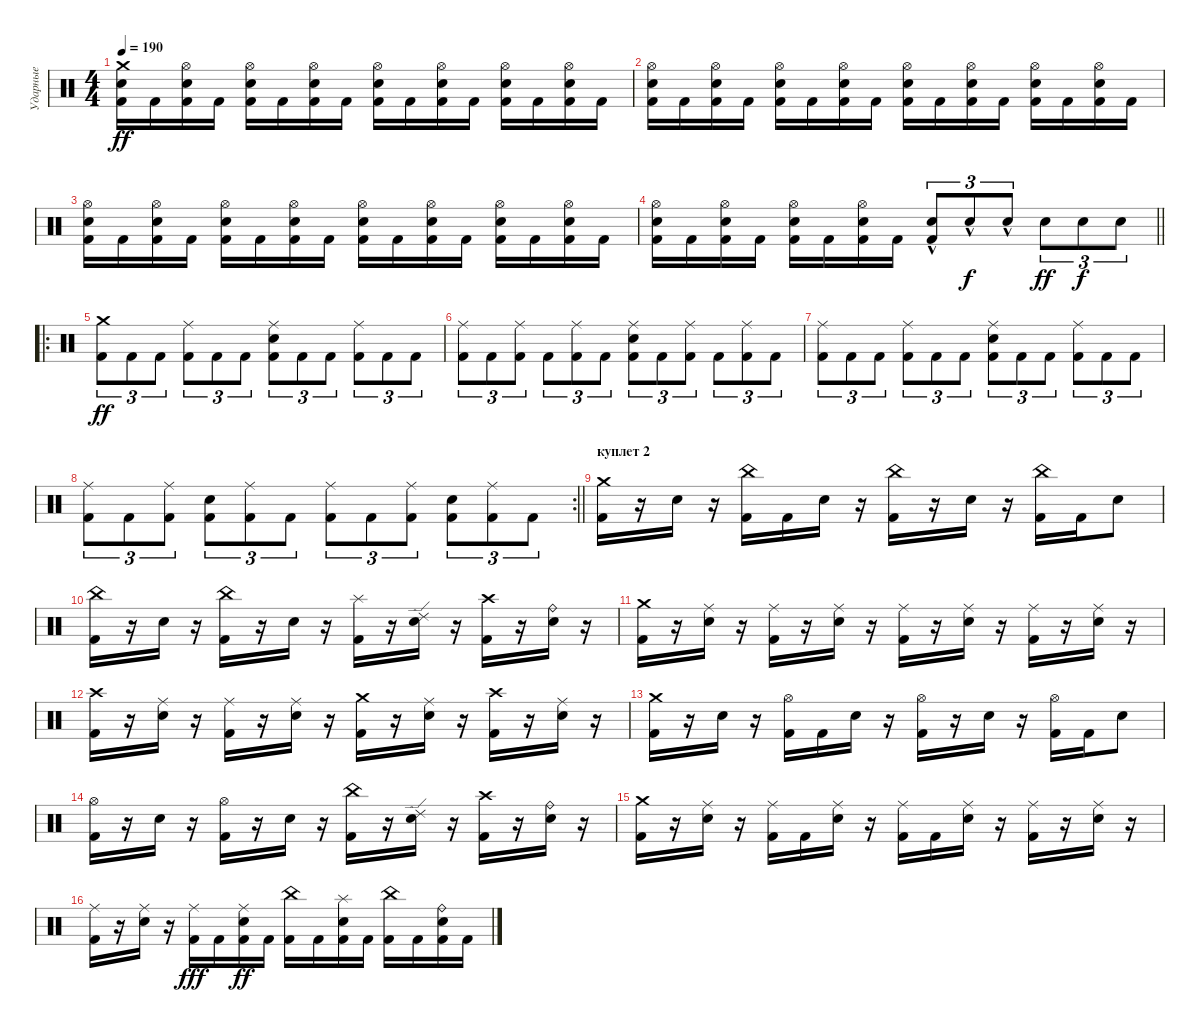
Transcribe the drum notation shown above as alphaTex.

\track ("Ударные" "Ударные") {instrument percussion}
\staff {score}
\articulation defaults
\ts (4 4)
\tempo 190
\clef neutral
\ks c
("Crash medium (hit)" "Electric Snare (hit)" "Kick (hit) 2").16{dy ff} "Kick (hit) 2".16 ("Hi-Hat (open)" "Electric Snare (hit)" "Kick (hit) 2").16 "Kick (hit) 2".16 ("Hi-Hat (open)" "Electric Snare (hit)" "Kick (hit) 2").16 "Kick (hit) 2".16 ("Hi-Hat (open)" "Electric Snare (hit)" "Kick (hit) 2").16 "Kick (hit) 2".16 ("Hi-Hat (open)" "Electric Snare (hit)" "Kick (hit) 2").16 "Kick (hit) 2".16 ("Hi-Hat (open)" "Electric Snare (hit)" "Kick (hit) 2").16 "Kick (hit) 2".16 ("Hi-Hat (open)" "Electric Snare (hit)" "Kick (hit) 2").16 "Kick (hit) 2".16 ("Hi-Hat (open)" "Electric Snare (hit)" "Kick (hit) 2").16 "Kick (hit) 2".16 |
("Hi-Hat (open)" "Electric Snare (hit)" "Kick (hit) 2").16 "Kick (hit) 2".16 ("Hi-Hat (open)" "Electric Snare (hit)" "Kick (hit) 2").16 "Kick (hit) 2".16 ("Hi-Hat (open)" "Electric Snare (hit)" "Kick (hit) 2").16 "Kick (hit) 2".16 ("Hi-Hat (open)" "Electric Snare (hit)" "Kick (hit) 2").16 "Kick (hit) 2".16 ("Hi-Hat (open)" "Electric Snare (hit)" "Kick (hit) 2").16 "Kick (hit) 2".16 ("Hi-Hat (open)" "Electric Snare (hit)" "Kick (hit) 2").16 "Kick (hit) 2".16 ("Hi-Hat (open)" "Electric Snare (hit)" "Kick (hit) 2").16 "Kick (hit) 2".16 ("Hi-Hat (open)" "Electric Snare (hit)" "Kick (hit) 2").16 "Kick (hit) 2".16 |
("Hi-Hat (open)" "Electric Snare (hit)" "Kick (hit) 2").16 "Kick (hit) 2".16 ("Hi-Hat (open)" "Electric Snare (hit)" "Kick (hit) 2").16 "Kick (hit) 2".16 ("Hi-Hat (open)" "Electric Snare (hit)" "Kick (hit) 2").16 "Kick (hit) 2".16 ("Hi-Hat (open)" "Electric Snare (hit)" "Kick (hit) 2").16 "Kick (hit) 2".16 ("Hi-Hat (open)" "Electric Snare (hit)" "Kick (hit) 2").16 "Kick (hit) 2".16 ("Hi-Hat (open)" "Electric Snare (hit)" "Kick (hit) 2").16 "Kick (hit) 2".16 ("Hi-Hat (open)" "Electric Snare (hit)" "Kick (hit) 2").16 "Kick (hit) 2".16 ("Hi-Hat (open)" "Electric Snare (hit)" "Kick (hit) 2").16 "Kick (hit) 2".16 |
\barLineRight lightlight
("Hi-Hat (open)" "Electric Snare (hit)" "Kick (hit) 2").16 "Kick (hit) 2".16 ("Hi-Hat (open)" "Electric Snare (hit)" "Kick (hit) 2").16 "Kick (hit) 2".16 ("Hi-Hat (open)" "Electric Snare (hit)" "Kick (hit) 2").16 "Kick (hit) 2".16 ("Hi-Hat (open)" "Electric Snare (hit)" "Kick (hit) 2").16 "Kick (hit) 2".16 ("Electric Snare (hit)"{hac} "Kick (hit) 2").8{tu (3 2)} "Electric Snare (hit)"{hac}.8{tu (3 2) dy f} "Electric Snare (hit)"{hac}.8{tu (3 2)} "Electric Snare (hit)".8{tu (3 2) dy ff} "Electric Snare (hit)".8{tu (3 2) dy f} "Electric Snare (hit)".8{tu (3 2)} |
\ro
("Crash medium (hit)" "Kick (hit) 2").8{tu (3 2) dy ff} "Kick (hit) 2".8{tu (3 2)} "Kick (hit) 2".8{tu (3 2)} ("Ride (middle)" "Kick (hit) 2").8{tu (3 2)} "Kick (hit) 2".8{tu (3 2)} "Kick (hit) 2".8{tu (3 2)} ("Ride (middle)" "Electric Snare (hit)" "Kick (hit) 2").8{tu (3 2)} "Kick (hit) 2".8{tu (3 2)} "Kick (hit) 2".8{tu (3 2)} ("Ride (middle)" "Kick (hit) 2").8{tu (3 2)} "Kick (hit) 2".8{tu (3 2)} "Kick (hit) 2".8{tu (3 2)} |
("Ride (middle)" "Kick (hit) 2").8{tu (3 2)} "Kick (hit) 2".8{tu (3 2)} ("Ride (middle)" "Kick (hit) 2").8{tu (3 2)} "Kick (hit) 2".8{tu (3 2)} ("Ride (middle)" "Kick (hit) 2").8{tu (3 2)} "Kick (hit) 2".8{tu (3 2)} ("Ride (middle)" "Electric Snare (hit)" "Kick (hit) 2").8{tu (3 2)} "Kick (hit) 2".8{tu (3 2)} ("Ride (middle)" "Kick (hit) 2").8{tu (3 2)} "Kick (hit) 2".8{tu (3 2)} ("Ride (middle)" "Kick (hit) 2").8{tu (3 2)} "Kick (hit) 2".8{tu (3 2)} |
("Ride (middle)" "Kick (hit) 2").8{tu (3 2)} "Kick (hit) 2".8{tu (3 2)} "Kick (hit) 2".8{tu (3 2)} ("Ride (middle)" "Kick (hit) 2").8{tu (3 2)} "Kick (hit) 2".8{tu (3 2)} "Kick (hit) 2".8{tu (3 2)} ("Ride (middle)" "Electric Snare (hit)" "Kick (hit) 2").8{tu (3 2)} "Kick (hit) 2".8{tu (3 2)} "Kick (hit) 2".8{tu (3 2)} ("Ride (middle)" "Kick (hit) 2").8{tu (3 2)} "Kick (hit) 2".8{tu (3 2)} "Kick (hit) 2".8{tu (3 2)} |
\rc 2
\barLineRight lightlight
("Ride (middle)" "Kick (hit) 2").8{tu (3 2)} "Kick (hit) 2".8{tu (3 2)} ("Ride (middle)" "Kick (hit) 2").8{tu (3 2)} ("Electric Snare (hit)" "Kick (hit) 2").8{tu (3 2)} ("Ride (middle)" "Kick (hit) 2").8{tu (3 2)} "Kick (hit) 2".8{tu (3 2)} ("Ride (middle)" "Kick (hit) 2").8{tu (3 2)} "Kick (hit) 2".8{tu (3 2)} ("Ride (middle)" "Kick (hit) 2").8{tu (3 2)} ("Electric Snare (hit)" "Kick (hit) 2").8{tu (3 2)} ("Ride (middle)" "Kick (hit) 2").8{tu (3 2)} "Kick (hit) 2".8{tu (3 2)} |
\section ("" "куплет 2")
("Crash medium (hit)" "Kick (hit) 2").16 r.16 "Electric Snare (hit)".16 r.16 ("China (hit)" "Kick (hit) 2").16 "Kick (hit) 2".16 "Electric Snare (hit)".16 r.16 ("China (hit)" "Kick (hit) 2").16 r.16 "Electric Snare (hit)".16 r.16 ("China (hit)" "Kick (hit) 2").16 "Kick (hit) 2".16 "Electric Snare (hit)".8 |
("China (hit)" "Kick (hit) 2").16 r.16 "Electric Snare (hit)".16 r.16 ("China (hit)" "Kick (hit) 2").16 r.16 "Electric Snare (hit)".16 r.16 ("Splash (hit)" "Kick (hit) 2").16 r.16 ("Ride (edge) 2" "Electric Snare (hit)").16 r.16 ("Crash high (hit)" "Kick (hit) 2").16 r.16 ("Ride (bell)" "Electric Snare (hit)").16 r.16 |
("Crash medium (hit)" "Kick (hit) 2").16 r.16 ("Ride (middle)" "Electric Snare (hit)").16 r.16 ("Ride (middle)" "Kick (hit) 2").16 r.16 ("Ride (middle)" "Electric Snare (hit)").16 r.16 ("Ride (middle)" "Kick (hit) 2").16 r.16 ("Ride (middle)" "Electric Snare (hit)").16 r.16 ("Ride (middle)" "Kick (hit) 2").16 r.16 ("Ride (middle)" "Electric Snare (hit)").16 r.16 |
("Crash high (hit)" "Kick (hit) 2").16 r.16 ("Ride (middle)" "Electric Snare (hit)").16 r.16 ("Ride (middle)" "Kick (hit) 2").16 r.16 ("Ride (middle)" "Electric Snare (hit)").16 r.16 ("Crash medium (hit)" "Kick (hit) 2").16 r.16 ("Ride (middle)" "Electric Snare (hit)").16 r.16 ("Crash high (hit)" "Kick (hit) 2").16 r.16 ("Ride (middle)" "Electric Snare (hit)").16 r.16 |
("Crash medium (hit)" "Kick (hit) 2").16 r.16 "Electric Snare (hit)".16 r.16 ("Hi-Hat (open)" "Kick (hit) 2").16 "Kick (hit) 2".16 "Electric Snare (hit)".16 r.16 ("Hi-Hat (open)" "Kick (hit) 2").16 r.16 "Electric Snare (hit)".16 r.16 ("Hi-Hat (open)" "Kick (hit) 2").16 "Kick (hit) 2".16 "Electric Snare (hit)".8 |
("Hi-Hat (open)" "Kick (hit) 2").16 r.16 "Electric Snare (hit)".16 r.16 ("Hi-Hat (open)" "Kick (hit) 2").16 r.16 "Electric Snare (hit)".16 r.16 ("China (hit)" "Kick (hit) 2").16 r.16 ("Ride (edge) 2" "Electric Snare (hit)").16 r.16 ("Crash high (hit)" "Kick (hit) 2").16 r.16 ("Ride (bell)" "Electric Snare (hit)").16 r.16 |
("Crash medium (hit)" "Kick (hit) 2").16 r.16 ("Ride (middle)" "Electric Snare (hit)").16 r.16 ("Ride (middle)" "Kick (hit) 2").16 "Kick (hit) 2".16 ("Ride (middle)" "Electric Snare (hit)").16 r.16 ("Ride (middle)" "Kick (hit) 2").16 "Kick (hit) 2".16 ("Ride (middle)" "Electric Snare (hit)").16 r.16 ("Ride (middle)" "Kick (hit) 2").16 r.16 ("Ride (middle)" "Electric Snare (hit)").16 r.16 |
("Ride (middle)" "Kick (hit) 2").16 r.16 ("Ride (middle)" "Electric Snare (hit)").16 r.16 ("Ride (middle)" "Kick (hit) 2").16{dy fff} "Kick (hit) 2".16 ("Ride (middle)" "Electric Snare (hit)" "Kick (hit) 2").16{dy ff} "Kick (hit) 2".16 ("China (hit)" "Kick (hit) 2").16 "Kick (hit) 2".16 ("Splash (hit)" "Electric Snare (hit)" "Kick (hit) 2").16 "Kick (hit) 2".16 ("China (hit)" "Kick (hit) 2").16 "Kick (hit) 2".16 ("Ride (bell)" "Electric Snare (hit)" "Kick (hit) 2").16 "Kick (hit) 2".16
